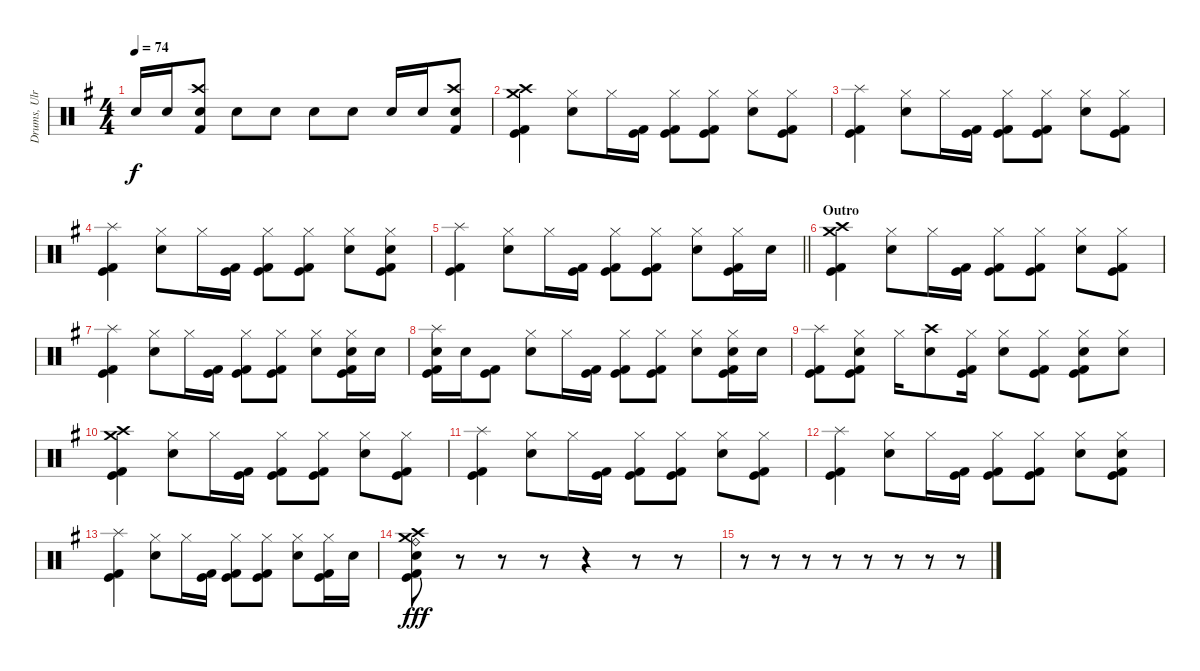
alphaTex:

\track ("Drums, Ulrich" "Drums, Ulr") {instrument percussion}
\staff {score}
\articulation defaults
\ts (4 4)
\tempo 74
\clef neutral
\ks g "Snare (hit) 2".16{dy f} "Snare (hit) 2".16
("Crash high (hit)" "Kick (hit) 2" "Snare (hit) 2").8 "Snare (hit) 2".8 "Snare (hit) 2".8 "Snare (hit) 2".8 "Snare (hit) 2".8 "Snare (hit) 2".16 "Snare (hit) 2".16 ("Crash high (hit)" "Kick (hit) 2" "Snare (hit) 2").8 |
("Crash medium (hit)" "Crash high (hit)" "Kick (hit) 2" "Kick (hit)").4 ("Hi-Hat (closed)" "Electric Snare (hit)").8 "Hi-Hat (closed)".16 ("Kick (hit) 2" "Kick (hit)").16 ("Hi-Hat (closed)" "Kick (hit) 2" "Kick (hit)").8 ("Hi-Hat (closed)" "Kick (hit)" "Kick (hit) 2").8 ("Hi-Hat (closed)" "Electric Snare (hit)").8 ("Hi-Hat (closed)" "Kick (hit) 2" "Kick (hit)").8 |
("Splash (hit)" "Kick (hit) 2" "Kick (hit)").4 ("Hi-Hat (closed)" "Electric Snare (hit)").8 "Hi-Hat (closed)".16 ("Kick (hit) 2" "Kick (hit)").16 ("Hi-Hat (closed)" "Kick (hit) 2" "Kick (hit)").8 ("Hi-Hat (closed)" "Kick (hit)" "Kick (hit) 2").8 ("Hi-Hat (closed)" "Electric Snare (hit)").8 ("Hi-Hat (closed)" "Kick (hit) 2" "Kick (hit)").8 |
("Splash (hit)" "Kick (hit) 2" "Kick (hit)").4 ("Hi-Hat (closed)" "Electric Snare (hit)").8 "Hi-Hat (closed)".16 ("Kick (hit) 2" "Kick (hit)").16 ("Hi-Hat (closed)" "Kick (hit) 2" "Kick (hit)").8 ("Hi-Hat (closed)" "Kick (hit)" "Kick (hit) 2").8 ("Hi-Hat (closed)" "Electric Snare (hit)").8 ("Hi-Hat (closed)" "Electric Snare (hit)" "Kick (hit) 2" "Kick (hit)").8 |
\barLineRight lightlight
("Splash (hit)" "Kick (hit) 2" "Kick (hit)").4 ("Hi-Hat (closed)" "Electric Snare (hit)").8 "Hi-Hat (closed)".16 ("Kick (hit) 2" "Kick (hit)").16 ("Hi-Hat (closed)" "Kick (hit) 2" "Kick (hit)").8 ("Hi-Hat (closed)" "Kick (hit)" "Kick (hit) 2").8 ("Hi-Hat (closed)" "Electric Snare (hit)").8 ("Hi-Hat (closed)" "Kick (hit) 2" "Kick (hit)").16 "Electric Snare (hit)".16 |
\section ("" "Outro")
("Crash medium (hit)" "Crash high (hit)" "Kick (hit) 2" "Kick (hit)").4 ("Hi-Hat (closed)" "Electric Snare (hit)").8 "Hi-Hat (closed)".16 ("Kick (hit) 2" "Kick (hit)").16 ("Hi-Hat (closed)" "Kick (hit) 2" "Kick (hit)").8 ("Hi-Hat (closed)" "Kick (hit)" "Kick (hit) 2").8 ("Hi-Hat (closed)" "Electric Snare (hit)").8 ("Hi-Hat (closed)" "Kick (hit) 2" "Kick (hit)").8 |
("Splash (hit)" "Kick (hit) 2" "Kick (hit)").4 ("Hi-Hat (closed)" "Electric Snare (hit)").8 "Hi-Hat (closed)".16 ("Kick (hit) 2" "Kick (hit)").16 ("Hi-Hat (closed)" "Kick (hit) 2" "Kick (hit)").8 ("Hi-Hat (closed)" "Kick (hit)" "Kick (hit) 2").8 ("Hi-Hat (closed)" "Electric Snare (hit)").8 ("Hi-Hat (closed)" "Electric Snare (hit)" "Kick (hit) 2" "Kick (hit)").16 "Electric Snare (hit)".16 |
("Splash (hit)" "Electric Snare (hit)" "Kick (hit) 2" "Kick (hit)").16 "Electric Snare (hit)".16 ("Kick (hit) 2" "Kick (hit)").8 ("Hi-Hat (closed)" "Electric Snare (hit)").8 "Hi-Hat (closed)".16 ("Kick (hit) 2" "Kick (hit)").16 ("Hi-Hat (closed)" "Kick (hit) 2" "Kick (hit)").8 ("Hi-Hat (closed)" "Kick (hit)" "Kick (hit) 2").8 ("Hi-Hat (closed)" "Electric Snare (hit)").8 ("Hi-Hat (closed)" "Electric Snare (hit)" "Kick (hit) 2" "Kick (hit)").16 "Electric Snare (hit)".16 |
("Splash (hit)" "Kick (hit) 2" "Kick (hit)").8 ("Hi-Hat (closed)" "Electric Snare (hit)" "Kick (hit) 2" "Kick (hit)").8 "Hi-Hat (closed)".16 ("Crash high (hit)" "Electric Snare (hit)").8 ("Hi-Hat (closed)" "Kick (hit)" "Kick (hit) 2").16 ("Hi-Hat (closed)" "Electric Snare (hit)").8 ("Hi-Hat (closed)" "Kick (hit) 2" "Kick (hit)").8 ("Hi-Hat (closed)" "Electric Snare (hit)" "Kick (hit)" "Kick (hit) 2").8 ("Hi-Hat (closed)" "Electric Snare (hit)").8 |
("Crash medium (hit)" "Crash high (hit)" "Kick (hit) 2" "Kick (hit)").4 ("Hi-Hat (closed)" "Electric Snare (hit)").8 "Hi-Hat (closed)".16 ("Kick (hit) 2" "Kick (hit)").16 ("Hi-Hat (closed)" "Kick (hit) 2" "Kick (hit)").8 ("Hi-Hat (closed)" "Kick (hit)" "Kick (hit) 2").8 ("Hi-Hat (closed)" "Electric Snare (hit)").8 ("Hi-Hat (closed)" "Kick (hit) 2" "Kick (hit)").8 |
("Splash (hit)" "Kick (hit) 2" "Kick (hit)").4 ("Hi-Hat (closed)" "Electric Snare (hit)").8 "Hi-Hat (closed)".16 ("Kick (hit) 2" "Kick (hit)").16 ("Hi-Hat (closed)" "Kick (hit) 2" "Kick (hit)").8 ("Hi-Hat (closed)" "Kick (hit)" "Kick (hit) 2").8 ("Hi-Hat (closed)" "Electric Snare (hit)").8 ("Hi-Hat (closed)" "Kick (hit) 2" "Kick (hit)").8 |
("Splash (hit)" "Kick (hit) 2" "Kick (hit)").4 ("Hi-Hat (closed)" "Electric Snare (hit)").8 "Hi-Hat (closed)".16 ("Kick (hit) 2" "Kick (hit)").16 ("Hi-Hat (closed)" "Kick (hit) 2" "Kick (hit)").8 ("Hi-Hat (closed)" "Kick (hit)" "Kick (hit) 2").8 ("Hi-Hat (closed)" "Electric Snare (hit)").8 ("Hi-Hat (closed)" "Electric Snare (hit)" "Kick (hit) 2" "Kick (hit)").8 |
("Splash (hit)" "Kick (hit) 2" "Kick (hit)").4 ("Hi-Hat (closed)" "Electric Snare (hit)").8 "Hi-Hat (closed)".16 ("Kick (hit) 2" "Kick (hit)").16 ("Hi-Hat (closed)" "Kick (hit) 2" "Kick (hit)").8 ("Hi-Hat (closed)" "Kick (hit)" "Kick (hit) 2").8 ("Hi-Hat (closed)" "Electric Snare (hit)").8 ("Hi-Hat (closed)" "Kick (hit) 2" "Kick (hit)").16 "Electric Snare (hit)".16 |
("Crash high (hit)" "Crash medium (hit)" "Electric Snare (hit)" "Ride (bell)" "Kick (hit) 2" "Kick (hit)").8{dy fff} r.8 r.8 r.8 r.4 r.8 r.8 |
r.8 r.8 r.8 r.8 r.8 r.8 r.8 r.8
